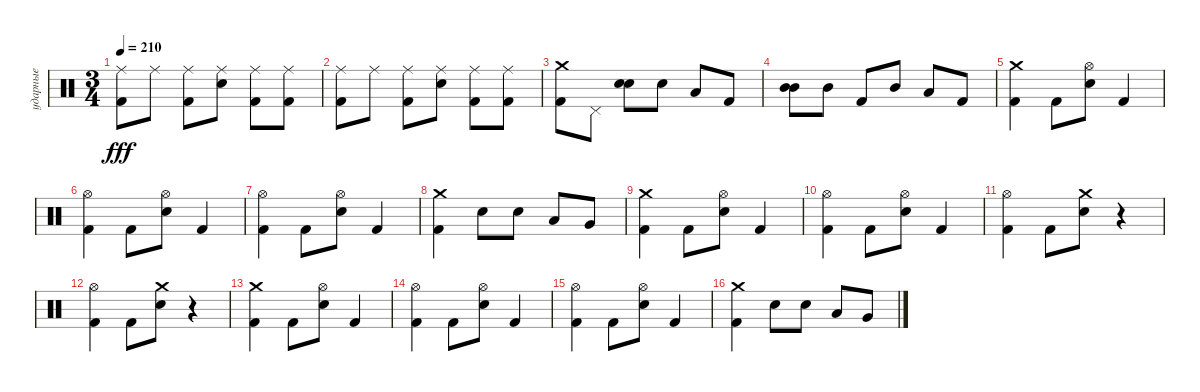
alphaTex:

\track ("ударные" "ударные") {instrument percussion}
\staff {score}
\articulation defaults
\ts (3 4)
\tempo 210
\clef neutral
\ks c
("Ride (middle)" "Kick (hit) 2").8{dy fff} "Ride (middle)".8 ("Ride (middle)" "Kick (hit) 2").8 ("Ride (middle)" "Snare (hit) 2").8 ("Ride (middle)" "Kick (hit) 2").8 ("Ride (middle)" "Kick (hit) 2").8 |
("Ride (middle)" "Kick (hit) 2").8 "Ride (middle)".8 ("Ride (middle)" "Kick (hit) 2").8 ("Ride (middle)" "Snare (hit) 2").8 ("Ride (middle)" "Kick (hit) 2").8 ("Ride (middle)" "Kick (hit) 2").8 |
("Crash medium (hit)" "Kick (hit) 2").8 "Pedal Hi-Hat (hit)".8 ("Snare (hit) 2" "Snare (hit) 2").8{bd 60} "Snare (hit) 2".8 "Low Tom (hit)".8 "Kick (hit) 2".8 |
("Mid Tom (hit)" "Mid Tom (hit)").8{bd 60} "Mid Tom (hit)".8 "Kick (hit) 2".8 "Mid Tom (hit)".8 "Low Tom (hit)".8 "Kick (hit) 2".8 |
("Crash medium (hit)" "Kick (hit) 2").4 "Kick (hit) 2".8 ("Hi-Hat (open)" "Snare (hit) 2").8 "Kick (hit) 2".4 |
("Hi-Hat (open)" "Kick (hit) 2").4 "Kick (hit) 2".8 ("Hi-Hat (open)" "Snare (hit) 2").8 "Kick (hit) 2".4 |
("Hi-Hat (open)" "Kick (hit) 2").4 "Kick (hit) 2".8 ("Hi-Hat (open)" "Snare (hit) 2").8 "Kick (hit) 2".4 |
("Crash medium (hit)" "Kick (hit) 2").4 "Snare (hit) 2".8 "Snare (hit) 2".8 "Low Tom (hit)".8 "Very Low Tom (hit)".8 |
("Crash medium (hit)" "Kick (hit) 2").4 "Kick (hit) 2".8 ("Hi-Hat (open)" "Snare (hit) 2").8 "Kick (hit) 2".4 |
("Hi-Hat (open)" "Kick (hit) 2").4 "Kick (hit) 2".8 ("Hi-Hat (open)" "Snare (hit) 2").8 "Kick (hit) 2".4 |
("Hi-Hat (open)" "Kick (hit) 2").4 "Kick (hit) 2".8 ("Crash medium (hit)" "Snare (hit) 2").8 r.4 |
("Hi-Hat (open)" "Kick (hit) 2").4 "Kick (hit) 2".8 ("Crash medium (hit)" "Snare (hit) 2").8 r.4 |
("Crash medium (hit)" "Kick (hit) 2").4 "Kick (hit) 2".8 ("Hi-Hat (open)" "Snare (hit) 2").8 "Kick (hit) 2".4 |
("Hi-Hat (open)" "Kick (hit) 2").4 "Kick (hit) 2".8 ("Hi-Hat (open)" "Snare (hit) 2").8 "Kick (hit) 2".4 |
("Hi-Hat (open)" "Kick (hit) 2").4 "Kick (hit) 2".8 ("Hi-Hat (open)" "Snare (hit) 2").8 "Kick (hit) 2".4 |
("Crash medium (hit)" "Kick (hit) 2").4 "Snare (hit) 2".8 "Snare (hit) 2".8 "Low Tom (hit)".8 "Very Low Tom (hit)".8
